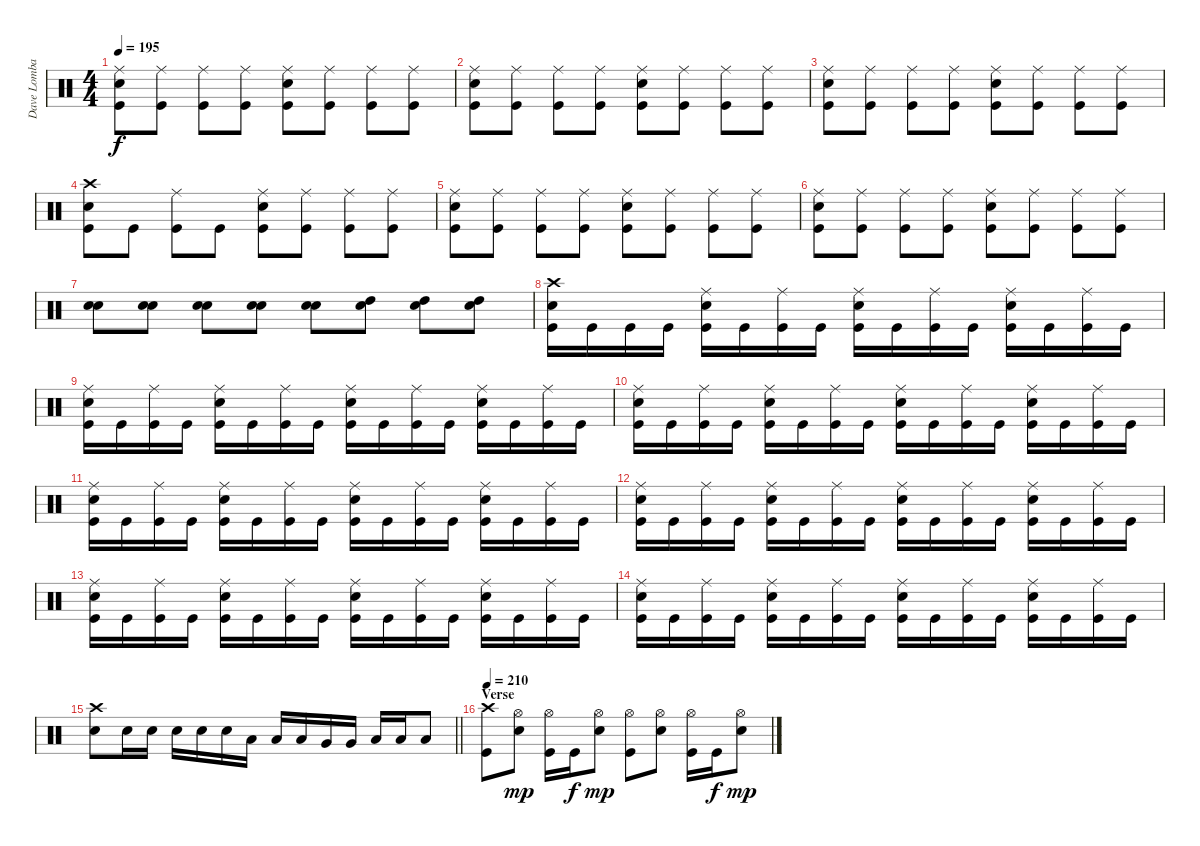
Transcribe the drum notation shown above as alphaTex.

\track ("Dave Lombardo" "Dave Lomba") {instrument percussion}
\staff {score}
\articulation defaults
\ts (4 4)
\tempo 195
\clef neutral
\ks c
("Ride (middle)" "Electric Snare (hit)" "Kick (hit)").8{dy f} ("Ride (middle)" "Kick (hit)").8 ("Ride (middle)" "Kick (hit)").8 ("Ride (middle)" "Kick (hit)").8 ("Ride (middle)" "Electric Snare (hit)" "Kick (hit)").8 ("Ride (middle)" "Kick (hit)").8 ("Ride (middle)" "Kick (hit)").8 ("Ride (middle)" "Kick (hit)").8 |
("Ride (middle)" "Electric Snare (hit)" "Kick (hit)").8 ("Ride (middle)" "Kick (hit)").8 ("Ride (middle)" "Kick (hit)").8 ("Ride (middle)" "Kick (hit)").8 ("Ride (middle)" "Electric Snare (hit)" "Kick (hit)").8 ("Ride (middle)" "Kick (hit)").8 ("Ride (middle)" "Kick (hit)").8 ("Ride (middle)" "Kick (hit)").8 |
("Ride (middle)" "Electric Snare (hit)" "Kick (hit)").8 ("Ride (middle)" "Kick (hit)").8 ("Ride (middle)" "Kick (hit)").8 ("Ride (middle)" "Kick (hit)").8 ("Ride (middle)" "Electric Snare (hit)" "Kick (hit)").8 ("Ride (middle)" "Kick (hit)").8 ("Ride (middle)" "Kick (hit)").8 ("Ride (middle)" "Kick (hit)").8 |
("Crash high (hit)" "Electric Snare (hit)" "Kick (hit)").8 "Kick (hit)".8 ("Ride (middle)" "Kick (hit)").8 "Kick (hit)".8 ("Ride (middle)" "Electric Snare (hit)" "Kick (hit)").8 ("Ride (middle)" "Kick (hit)").8 ("Ride (middle)" "Kick (hit)").8 ("Ride (middle)" "Kick (hit)").8 |
("Ride (middle)" "Electric Snare (hit)" "Kick (hit)").8 ("Ride (middle)" "Kick (hit)").8 ("Ride (middle)" "Kick (hit)").8 ("Ride (middle)" "Kick (hit)").8 ("Ride (middle)" "Electric Snare (hit)" "Kick (hit)").8 ("Ride (middle)" "Kick (hit)").8 ("Ride (middle)" "Kick (hit)").8 ("Ride (middle)" "Kick (hit)").8 |
("Ride (middle)" "Electric Snare (hit)" "Kick (hit)").8 ("Ride (middle)" "Kick (hit)").8 ("Ride (middle)" "Kick (hit)").8 ("Ride (middle)" "Kick (hit)").8 ("Ride (middle)" "Electric Snare (hit)" "Kick (hit)").8 ("Ride (middle)" "Kick (hit)").8 ("Ride (middle)" "Kick (hit)").8 ("Ride (middle)" "Kick (hit)").8 |
("Snare (hit) 2" "Electric Snare (hit)").8 ("Snare (hit) 2" "Electric Snare (hit)").8 ("Snare (hit) 2" "Electric Snare (hit)").8 ("Snare (hit) 2" "Electric Snare (hit)").8 ("Snare (hit) 2" "Electric Snare (hit)").8 ("High Tom (hit)" "Electric Snare (hit)").8 ("High Tom (hit)" "Electric Snare (hit)").8 ("High Tom (hit)" "Electric Snare (hit)").8 |
("Crash high (hit)" "Electric Snare (hit)" "Kick (hit)").16 "Kick (hit)".16 "Kick (hit)".16 "Kick (hit)".16 ("Ride (middle)" "Electric Snare (hit)" "Kick (hit)").16 "Kick (hit)".16 ("Ride (middle)" "Kick (hit)").16 "Kick (hit)".16 ("Ride (middle)" "Electric Snare (hit)" "Kick (hit)").16 "Kick (hit)".16 ("Ride (middle)" "Kick (hit)").16 "Kick (hit)".16 ("Ride (middle)" "Electric Snare (hit)" "Kick (hit)").16 "Kick (hit)".16 ("Ride (middle)" "Kick (hit)").16 "Kick (hit)".16 |
("Ride (middle)" "Electric Snare (hit)" "Kick (hit)").16 "Kick (hit)".16 ("Ride (middle)" "Kick (hit)").16 "Kick (hit)".16 ("Ride (middle)" "Electric Snare (hit)" "Kick (hit)").16 "Kick (hit)".16 ("Ride (middle)" "Kick (hit)").16 "Kick (hit)".16 ("Ride (middle)" "Electric Snare (hit)" "Kick (hit)").16 "Kick (hit)".16 ("Ride (middle)" "Kick (hit)").16 "Kick (hit)".16 ("Ride (middle)" "Electric Snare (hit)" "Kick (hit)").16 "Kick (hit)".16 ("Ride (middle)" "Kick (hit)").16 "Kick (hit)".16 |
("Ride (middle)" "Electric Snare (hit)" "Kick (hit)").16 "Kick (hit)".16 ("Ride (middle)" "Kick (hit)").16 "Kick (hit)".16 ("Ride (middle)" "Electric Snare (hit)" "Kick (hit)").16 "Kick (hit)".16 ("Ride (middle)" "Kick (hit)").16 "Kick (hit)".16 ("Ride (middle)" "Electric Snare (hit)" "Kick (hit)").16 "Kick (hit)".16 ("Ride (middle)" "Kick (hit)").16 "Kick (hit)".16 ("Ride (middle)" "Electric Snare (hit)" "Kick (hit)").16 "Kick (hit)".16 ("Ride (middle)" "Kick (hit)").16 "Kick (hit)".16 |
("Ride (middle)" "Electric Snare (hit)" "Kick (hit)").16 "Kick (hit)".16 ("Ride (middle)" "Kick (hit)").16 "Kick (hit)".16 ("Ride (middle)" "Electric Snare (hit)" "Kick (hit)").16 "Kick (hit)".16 ("Ride (middle)" "Kick (hit)").16 "Kick (hit)".16 ("Ride (middle)" "Electric Snare (hit)" "Kick (hit)").16 "Kick (hit)".16 ("Ride (middle)" "Kick (hit)").16 "Kick (hit)".16 ("Ride (middle)" "Electric Snare (hit)" "Kick (hit)").16 "Kick (hit)".16 ("Ride (middle)" "Kick (hit)").16 "Kick (hit)".16 |
("Ride (middle)" "Electric Snare (hit)" "Kick (hit)").16 "Kick (hit)".16 ("Ride (middle)" "Kick (hit)").16 "Kick (hit)".16 ("Ride (middle)" "Electric Snare (hit)" "Kick (hit)").16 "Kick (hit)".16 ("Ride (middle)" "Kick (hit)").16 "Kick (hit)".16 ("Ride (middle)" "Electric Snare (hit)" "Kick (hit)").16 "Kick (hit)".16 ("Ride (middle)" "Kick (hit)").16 "Kick (hit)".16 ("Ride (middle)" "Electric Snare (hit)" "Kick (hit)").16 "Kick (hit)".16 ("Ride (middle)" "Kick (hit)").16 "Kick (hit)".16 |
("Ride (middle)" "Electric Snare (hit)" "Kick (hit)").16 "Kick (hit)".16 ("Ride (middle)" "Kick (hit)").16 "Kick (hit)".16 ("Ride (middle)" "Electric Snare (hit)" "Kick (hit)").16 "Kick (hit)".16 ("Ride (middle)" "Kick (hit)").16 "Kick (hit)".16 ("Ride (middle)" "Electric Snare (hit)" "Kick (hit)").16 "Kick (hit)".16 ("Ride (middle)" "Kick (hit)").16 "Kick (hit)".16 ("Ride (middle)" "Electric Snare (hit)" "Kick (hit)").16 "Kick (hit)".16 ("Ride (middle)" "Kick (hit)").16 "Kick (hit)".16 |
("Ride (middle)" "Electric Snare (hit)" "Kick (hit)").16 "Kick (hit)".16 ("Ride (middle)" "Kick (hit)").16 "Kick (hit)".16 ("Ride (middle)" "Electric Snare (hit)" "Kick (hit)").16 "Kick (hit)".16 ("Ride (middle)" "Kick (hit)").16 "Kick (hit)".16 ("Ride (middle)" "Electric Snare (hit)" "Kick (hit)").16 "Kick (hit)".16 ("Ride (middle)" "Kick (hit)").16 "Kick (hit)".16 ("Ride (middle)" "Electric Snare (hit)" "Kick (hit)").16 "Kick (hit)".16 ("Ride (middle)" "Kick (hit)").16 "Kick (hit)".16 |
\barLineRight lightlight
("Crash high (hit)" "Electric Snare (hit)").8 "Electric Snare (hit)".16 "Electric Snare (hit)".16 "Electric Snare (hit)".16 "Electric Snare (hit)".16 "Electric Snare (hit)".16 "Low Tom (hit)".16 "Low Tom (hit)".16 "Low Tom (hit)".16 "Very Low Tom (hit)".16 "Very Low Tom (hit)".16 "Low Floor Tom (hit)".16 "Low Floor Tom (hit)".16 "Low Floor Tom (hit)".8 |
\section ("" "Verse")
\tempo 210
("Crash high (hit)" "Kick (hit)").8 ("Hi-Hat (open)" "Electric Snare (hit)").8{dy mp} ("Hi-Hat (open)" "Kick (hit)").16 "Kick (hit)".16{dy f} ("Hi-Hat (open)" "Electric Snare (hit)").8{dy mp} ("Hi-Hat (open)" "Kick (hit)").8 ("Hi-Hat (open)" "Electric Snare (hit)").8 ("Hi-Hat (open)" "Kick (hit)").16 "Kick (hit)".16{dy f} ("Hi-Hat (open)" "Electric Snare (hit)").8{dy mp}
